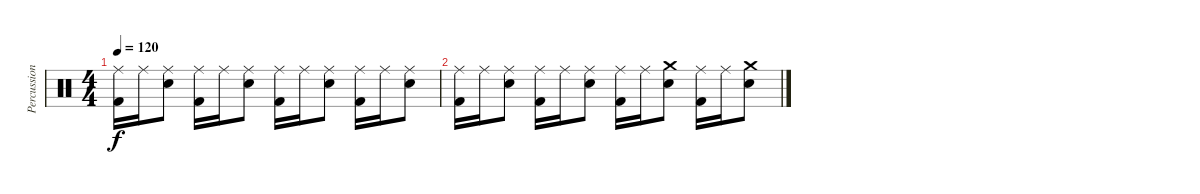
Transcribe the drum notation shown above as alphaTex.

\track ("Percussions" "Percussion") {instrument percussion}
\staff {score}
\articulation defaults
\ts (4 4)
\tempo 120
\clef neutral
\ks c
("Ride (middle)" "Kick (hit) 2").16{dy f} "Ride (middle)".16 ("Ride (middle)" "Electric Snare (hit)").8 ("Ride (middle)" "Kick (hit) 2").16 "Ride (middle)".16 ("Ride (middle)" "Electric Snare (hit)").8 ("Ride (middle)" "Kick (hit) 2").16 "Ride (middle)".16 ("Ride (middle)" "Electric Snare (hit)").8 ("Ride (middle)" "Kick (hit) 2").16 "Ride (middle)".16 ("Ride (middle)" "Electric Snare (hit)").8 |
("Ride (middle)" "Kick (hit) 2").16 "Ride (middle)".16 ("Ride (middle)" "Electric Snare (hit)").8 ("Ride (middle)" "Kick (hit) 2").16 "Ride (middle)".16 ("Ride (middle)" "Electric Snare (hit)").8 ("Ride (middle)" "Kick (hit) 2").16 "Ride (middle)".16 ("Crash medium (hit)" "Electric Snare (hit)").8 ("Ride (middle)" "Kick (hit) 2").16 "Ride (middle)".16 ("Crash medium (hit)" "Electric Snare (hit)").8
